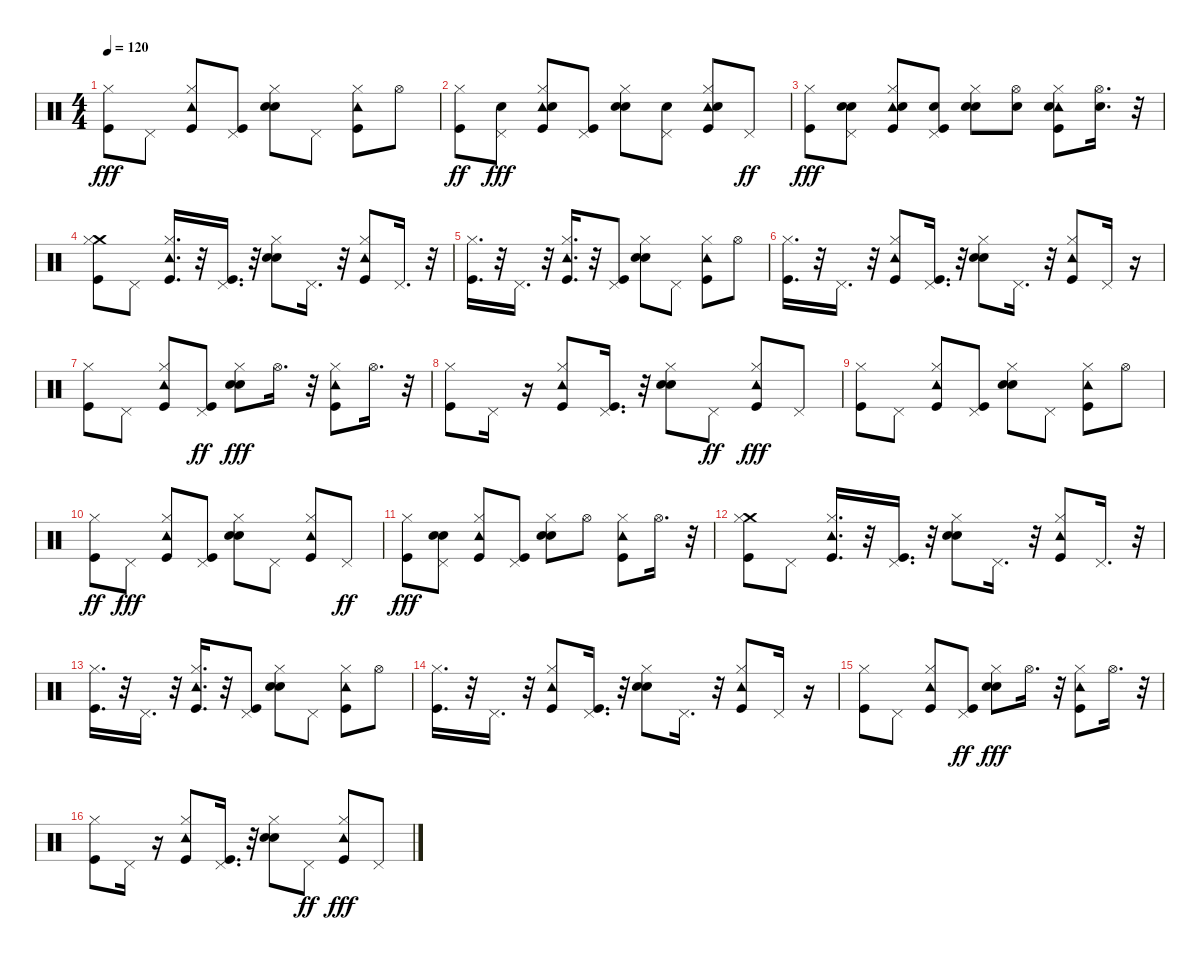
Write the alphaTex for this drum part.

\track "" {instrument percussion}
\staff {score}
\articulation defaults
\ts (4 4)
\tempo 120
\clef neutral
\ks c
("Kick (hit)" "Hi-Hat (closed)").8{dy fff} "Pedal Hi-Hat (hit)".8 ("Tambourine (hit)" "Hi-Hat (closed)" "Kick (hit)").8 ("Kick (hit)" "Pedal Hi-Hat (hit)").8 ("Hi-Hat (closed)" "Hand Clap (hit)" "Snare (hit) 2").8 "Pedal Hi-Hat (hit)".8 ("Tambourine (hit)" "Hi-Hat (closed)" "Kick (hit)").8 "Hi-Hat (open)".8 |
("Kick (hit)" "Hi-Hat (closed)").8{dy ff} ("Pedal Hi-Hat (hit)" "Snare (hit) 2").8{dy fff} ("Kick (hit)" "Hi-Hat (closed)" "Tambourine (hit)" "Snare (hit) 2").8 ("Kick (hit)" "Pedal Hi-Hat (hit)").8 ("Hand Clap (hit)" "Hi-Hat (closed)" "Snare (hit) 2").8 ("Pedal Hi-Hat (hit)" "Snare (hit) 2").8 ("Tambourine (hit)" "Kick (hit)" "Hi-Hat (closed)" "Snare (hit) 2").8 "Pedal Hi-Hat (hit)".8{dy ff} |
("Hi-Hat (closed)" "Kick (hit)").8{dy fff} ("Pedal Hi-Hat (hit)" "Hand Clap (hit)" "Snare (hit) 2").8 ("Tambourine (hit)" "Hi-Hat (closed)" "Kick (hit)" "Snare (hit) 2").8 ("Pedal Hi-Hat (hit)" "Kick (hit)" "Snare (hit) 2").8 ("Hi-Hat (closed)" "Hand Clap (hit)" "Snare (hit) 2").8 ("Hi-Hat (open)" "Snare (hit) 2").8 ("Tambourine (hit)" "Hi-Hat (closed)" "Kick (hit)" "Snare (hit) 2").8 ("Hi-Hat (open)" "Snare (hit) 2").16{d} r.32 |
("Crash medium (hit)" "Kick (hit)" "Hi-Hat (closed)").8 "Pedal Hi-Hat (hit)".8 ("Hi-Hat (closed)" "Kick (hit)" "Tambourine (hit)").16{d} r.32 ("Pedal Hi-Hat (hit)" "Kick (hit)").16{d} r.32 ("Hand Clap (hit)" "Hi-Hat (closed)" "Snare (hit) 2").8 "Pedal Hi-Hat (hit)".16{d} r.32 ("Hi-Hat (closed)" "Kick (hit)" "Tambourine (hit)").8 "Pedal Hi-Hat (hit)".16{d} r.32 |
("Hi-Hat (closed)" "Kick (hit)").16{d} r.32 "Pedal Hi-Hat (hit)".16{d} r.32 ("Hi-Hat (closed)" "Kick (hit)" "Tambourine (hit)").16{d} r.32 ("Pedal Hi-Hat (hit)" "Kick (hit)").8 ("Hi-Hat (closed)" "Hand Clap (hit)" "Snare (hit) 2").8 "Pedal Hi-Hat (hit)".8 ("Hi-Hat (closed)" "Kick (hit)" "Tambourine (hit)").8 "Hi-Hat (open)".8 |
("Hi-Hat (closed)" "Kick (hit)").16{d} r.32 "Pedal Hi-Hat (hit)".16{d} r.32 ("Tambourine (hit)" "Kick (hit)" "Hi-Hat (closed)").8 ("Pedal Hi-Hat (hit)" "Kick (hit)").16{d} r.32 ("Hi-Hat (closed)" "Hand Clap (hit)" "Snare (hit) 2").8 "Pedal Hi-Hat (hit)".16{d} r.32 ("Tambourine (hit)" "Hi-Hat (closed)" "Kick (hit)").8 "Pedal Hi-Hat (hit)".16 r.16 |
("Kick (hit)" "Hi-Hat (closed)").8 "Pedal Hi-Hat (hit)".8 ("Tambourine (hit)" "Hi-Hat (closed)" "Kick (hit)").8 ("Kick (hit)" "Pedal Hi-Hat (hit)").8{dy ff} ("Hi-Hat (closed)" "Hand Clap (hit)" "Snare (hit) 2").8{dy fff} "Hi-Hat (open)".16{d} r.32 ("Hi-Hat (closed)" "Kick (hit)" "Tambourine (hit)").8 "Hi-Hat (open)".16{d} r.32 |
("Kick (hit)" "Hi-Hat (closed)").8 "Pedal Hi-Hat (hit)".16 r.16 ("Kick (hit)" "Hi-Hat (closed)" "Tambourine (hit)").8 ("Kick (hit)" "Pedal Hi-Hat (hit)").16{d} r.32 ("Hand Clap (hit)" "Hi-Hat (closed)" "Snare (hit) 2").8 "Pedal Hi-Hat (hit)".8{dy ff} ("Hi-Hat (closed)" "Kick (hit)" "Tambourine (hit)").8{dy fff} "Pedal Hi-Hat (hit)".8 |
("Kick (hit)" "Hi-Hat (closed)").8 "Pedal Hi-Hat (hit)".8 ("Tambourine (hit)" "Hi-Hat (closed)" "Kick (hit)").8 ("Kick (hit)" "Pedal Hi-Hat (hit)").8 ("Hi-Hat (closed)" "Hand Clap (hit)" "Snare (hit) 2").8 "Pedal Hi-Hat (hit)".8 ("Tambourine (hit)" "Hi-Hat (closed)" "Kick (hit)").8 "Hi-Hat (open)".8 |
("Kick (hit)" "Hi-Hat (closed)").8{dy ff} "Pedal Hi-Hat (hit)".8{dy fff} ("Kick (hit)" "Hi-Hat (closed)" "Tambourine (hit)").8 ("Kick (hit)" "Pedal Hi-Hat (hit)").8 ("Hand Clap (hit)" "Hi-Hat (closed)" "Snare (hit) 2").8 "Pedal Hi-Hat (hit)".8 ("Tambourine (hit)" "Kick (hit)" "Hi-Hat (closed)").8 "Pedal Hi-Hat (hit)".8{dy ff} |
("Hi-Hat (closed)" "Kick (hit)").8{dy fff} ("Pedal Hi-Hat (hit)" "Hand Clap (hit)" "Snare (hit) 2").8 ("Tambourine (hit)" "Hi-Hat (closed)" "Kick (hit)").8 ("Pedal Hi-Hat (hit)" "Kick (hit)").8 ("Hi-Hat (closed)" "Hand Clap (hit)" "Snare (hit) 2").8 "Hi-Hat (open)".8 ("Tambourine (hit)" "Hi-Hat (closed)" "Kick (hit)").8 "Hi-Hat (open)".16{d} r.32 |
("Crash medium (hit)" "Kick (hit)" "Hi-Hat (closed)").8 "Pedal Hi-Hat (hit)".8 ("Hi-Hat (closed)" "Kick (hit)" "Tambourine (hit)").16{d} r.32 ("Pedal Hi-Hat (hit)" "Kick (hit)").16{d} r.32 ("Hand Clap (hit)" "Hi-Hat (closed)" "Snare (hit) 2").8 "Pedal Hi-Hat (hit)".16{d} r.32 ("Hi-Hat (closed)" "Kick (hit)" "Tambourine (hit)").8 "Pedal Hi-Hat (hit)".16{d} r.32 |
("Hi-Hat (closed)" "Kick (hit)").16{d} r.32 "Pedal Hi-Hat (hit)".16{d} r.32 ("Hi-Hat (closed)" "Kick (hit)" "Tambourine (hit)").16{d} r.32 ("Pedal Hi-Hat (hit)" "Kick (hit)").8 ("Hi-Hat (closed)" "Hand Clap (hit)" "Snare (hit) 2").8 "Pedal Hi-Hat (hit)".8 ("Hi-Hat (closed)" "Kick (hit)" "Tambourine (hit)").8 "Hi-Hat (open)".8 |
("Hi-Hat (closed)" "Kick (hit)").16{d} r.32 "Pedal Hi-Hat (hit)".16{d} r.32 ("Tambourine (hit)" "Kick (hit)" "Hi-Hat (closed)").8 ("Pedal Hi-Hat (hit)" "Kick (hit)").16{d} r.32 ("Hi-Hat (closed)" "Hand Clap (hit)" "Snare (hit) 2").8 "Pedal Hi-Hat (hit)".16{d} r.32 ("Tambourine (hit)" "Hi-Hat (closed)" "Kick (hit)").8 "Pedal Hi-Hat (hit)".16 r.16 |
("Kick (hit)" "Hi-Hat (closed)").8 "Pedal Hi-Hat (hit)".8 ("Tambourine (hit)" "Hi-Hat (closed)" "Kick (hit)").8 ("Kick (hit)" "Pedal Hi-Hat (hit)").8{dy ff} ("Hi-Hat (closed)" "Hand Clap (hit)" "Snare (hit) 2").8{dy fff} "Hi-Hat (open)".16{d} r.32 ("Hi-Hat (closed)" "Kick (hit)" "Tambourine (hit)").8 "Hi-Hat (open)".16{d} r.32 |
("Kick (hit)" "Hi-Hat (closed)").8 "Pedal Hi-Hat (hit)".16 r.16 ("Kick (hit)" "Hi-Hat (closed)" "Tambourine (hit)").8 ("Kick (hit)" "Pedal Hi-Hat (hit)").16{d} r.32 ("Hand Clap (hit)" "Hi-Hat (closed)" "Snare (hit) 2").8 "Pedal Hi-Hat (hit)".8{dy ff} ("Hi-Hat (closed)" "Kick (hit)" "Tambourine (hit)").8{dy fff} "Pedal Hi-Hat (hit)".8
